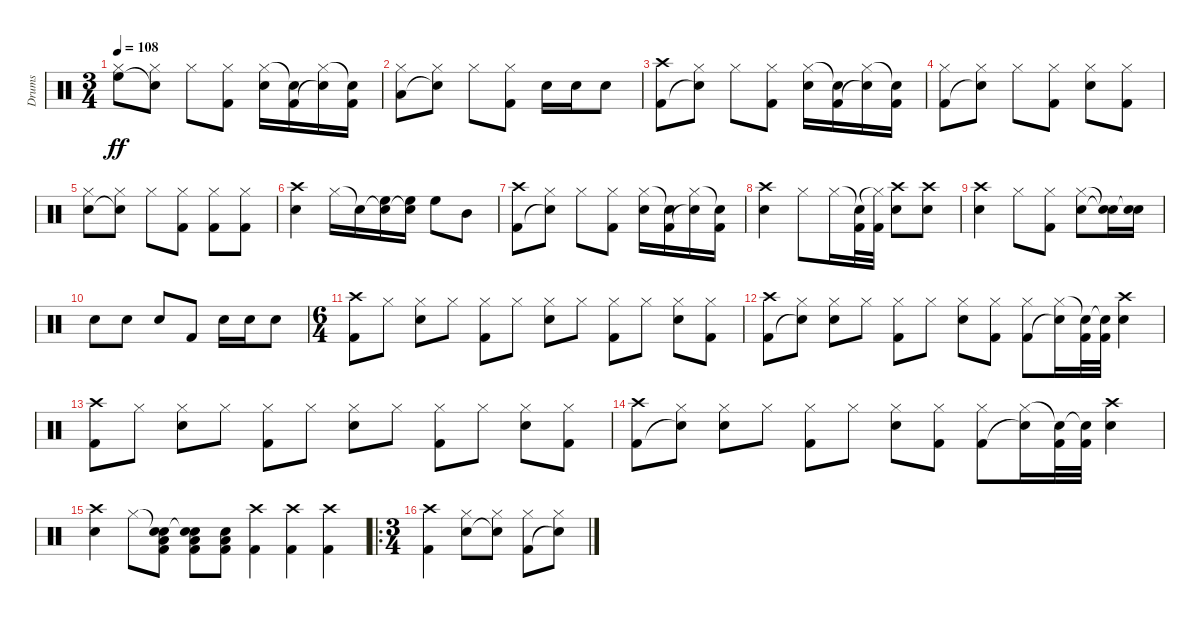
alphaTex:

\track ("Drums" "Drums") {instrument percussion}
\staff {score}
\articulation defaults
\ts (3 4)
\tempo 108
\clef neutral
\ks c
("Hi-Hat (closed)" "High Floor Tom (hit)").8{dy ff} ("Hi-Hat (closed)" "Snare (hit)"{t}).8 "Hi-Hat (closed)".8 ("Hi-Hat (closed)" "Kick (hit) 2").8 ("Hi-Hat (closed)" "Snare (hit) 2").16 ("Snare (hit)"{t} "Kick (hit) 2").16 ("Hi-Hat (closed)" "Snare (hit)"{t}).16 ("Snare (hit)"{t} "Kick (hit) 2").16 |
("Hi-Hat (closed)" "Low Tom (hit)").8 ("Hi-Hat (closed)" "Snare (hit)"{t}).8 "Hi-Hat (closed)".8 ("Hi-Hat (closed)" "Kick (hit) 2").8 "Snare (hit) 2".16 "Snare (hit) 2".16 "Snare (hit) 2".8 |
("Crash high (hit)" "Kick (hit) 2").8 ("Hi-Hat (closed)" "Snare (hit)"{t}).8 "Hi-Hat (closed)".8 ("Hi-Hat (closed)" "Kick (hit) 2").8 ("Hi-Hat (closed)" "Snare (hit) 2").16 ("Snare (hit)"{t} "Kick (hit) 2").16 ("Hi-Hat (closed)" "Snare (hit)"{t}).16 ("Snare (hit)"{t} "Kick (hit) 2").16 |
("Hi-Hat (closed)" "Kick (hit) 2").8 ("Hi-Hat (closed)" "Snare (hit)"{t}).8 "Hi-Hat (closed)".8 ("Hi-Hat (closed)" "Kick (hit) 2").8 ("Hi-Hat (closed)" "Snare (hit) 2").8 ("Hi-Hat (closed)" "Kick (hit) 2").8 |
("Hi-Hat (closed)" "Snare (hit) 2").8 ("Hi-Hat (closed)" "Snare (hit)"{t}).8 "Hi-Hat (closed)".8 ("Hi-Hat (closed)" "Kick (hit) 2").8 ("Hi-Hat (closed)" "Kick (hit) 2").8 ("Hi-Hat (closed)" "Kick (hit) 2").8 |
("Crash high (hit)" "Snare (hit) 2").4 "Hi-Hat (closed)".16 "Snare (hit)"{t}.16 ("Snare (hit)"{t} "High Floor Tom (hit)").16 ("Snare (hit)"{t} "High Floor Tom (hit)").16 "High Floor Tom (hit)".8 "Mid Tom (hit)".8 |
("Crash high (hit)" "Kick (hit) 2").8 ("Hi-Hat (closed)" "Snare (hit)"{t}).8 "Hi-Hat (closed)".8 ("Hi-Hat (closed)" "Kick (hit) 2").8 ("Hi-Hat (closed)" "Snare (hit) 2").16 ("Snare (hit)"{t} "Kick (hit) 2").16 ("Hi-Hat (closed)" "Snare (hit)"{t}).16 ("Snare (hit)"{t} "Kick (hit) 2").16 |
("Crash high (hit)" "Snare (hit) 2").4 "Hi-Hat (closed)".8 "Hi-Hat (closed)".16 ("Snare (hit)"{t} "Kick (hit) 2").32 ("Hi-Hat (closed)"{t} "Kick (hit) 2").32 ("Crash high (hit)" "Snare (hit) 2").8 ("Crash high (hit)" "Snare (hit) 2").8 |
("Crash high (hit)" "Snare (hit) 2").4 "Hi-Hat (closed)".8 ("Hi-Hat (closed)" "Kick (hit) 2").8 ("Hi-Hat (closed)" "Snare (hit) 2").8 ("Snare (hit)"{t} "Snare (hit)"{t}).16 ("Snare (hit)"{t} "Snare (hit) 2").16 |
"Snare (hit) 2".8 "Snare (hit) 2".8 "Snare (hit) 2".8 "Kick (hit) 2".8 "Snare (hit) 2".16 "Snare (hit) 2".16 "Snare (hit) 2".8 |
\ts (6 4)
("Crash high (hit)" "Kick (hit) 2").8 "Hi-Hat (closed)".8 ("Hi-Hat (closed)" "Snare (hit) 2").8 "Hi-Hat (closed)".8 ("Hi-Hat (closed)" "Kick (hit) 2").8 "Hi-Hat (closed)".8 ("Hi-Hat (closed)" "Snare (hit) 2").8 "Hi-Hat (closed)".8 ("Hi-Hat (closed)" "Kick (hit) 2").8 "Hi-Hat (closed)".8 ("Hi-Hat (closed)" "Snare (hit) 2").8 ("Hi-Hat (closed)" "Kick (hit) 2").8 |
("Crash high (hit)" "Kick (hit) 2").8 ("Hi-Hat (closed)" "Snare (hit)"{t}).8 ("Hi-Hat (closed)" "Snare (hit) 2").8 "Hi-Hat (closed)".8 ("Hi-Hat (closed)" "Kick (hit) 2").8 "Hi-Hat (closed)".8 ("Hi-Hat (closed)" "Snare (hit) 2").8 ("Hi-Hat (closed)" "Kick (hit) 2").8 ("Hi-Hat (closed)" "Kick (hit) 2").8 ("Hi-Hat (closed)" "Snare (hit)"{t}).16 ("Snare (hit)"{t} "Kick (hit) 2").32 ("Snare (hit)"{t} "Kick (hit) 2").32 ("Crash high (hit)" "Snare (hit) 2").4 |
("Crash high (hit)" "Kick (hit) 2").8 "Hi-Hat (closed)".8 ("Hi-Hat (closed)" "Snare (hit) 2").8 "Hi-Hat (closed)".8 ("Hi-Hat (closed)" "Kick (hit) 2").8 "Hi-Hat (closed)".8 ("Hi-Hat (closed)" "Snare (hit) 2").8 "Hi-Hat (closed)".8 ("Hi-Hat (closed)" "Kick (hit) 2").8 "Hi-Hat (closed)".8 ("Hi-Hat (closed)" "Snare (hit) 2").8 ("Hi-Hat (closed)" "Kick (hit) 2").8 |
("Crash high (hit)" "Kick (hit) 2").8 ("Hi-Hat (closed)" "Snare (hit)"{t}).8 ("Hi-Hat (closed)" "Snare (hit) 2").8 "Hi-Hat (closed)".8 ("Hi-Hat (closed)" "Kick (hit) 2").8 "Hi-Hat (closed)".8 ("Hi-Hat (closed)" "Snare (hit) 2").8 ("Hi-Hat (closed)" "Kick (hit) 2").8 ("Hi-Hat (closed)" "Kick (hit) 2").8 ("Hi-Hat (closed)" "Snare (hit)"{t}).16 ("Snare (hit)"{t} "Kick (hit) 2").32 ("Snare (hit)"{t} "Kick (hit) 2").32 ("Crash high (hit)" "Snare (hit) 2").4 |
("Crash high (hit)" "Snare (hit) 2").4 "Hi-Hat (closed)".8 ("Snare (hit)"{t} "Low Tom (hit)" "Snare (hit) 2" "Kick (hit) 2").8 ("Snare (hit)"{t} "Low Tom (hit)" "Snare (hit) 2" "Kick (hit) 2").8 ("Low Tom (hit)" "Snare (hit) 2" "Kick (hit) 2").8 ("Crash high (hit)" "Kick (hit) 2").4 ("Crash high (hit)" "Kick (hit) 2").4 ("Crash high (hit)" "Kick (hit) 2").4 |
\ro
\ts (3 4)
("Crash high (hit)" "Kick (hit) 2").4 ("Hi-Hat (closed)" "Snare (hit) 2").8 ("Hi-Hat (closed)" "Snare (hit)"{t}).8 ("Hi-Hat (closed)" "Kick (hit) 2").8 ("Hi-Hat (closed)" "Snare (hit)"{t}).8
